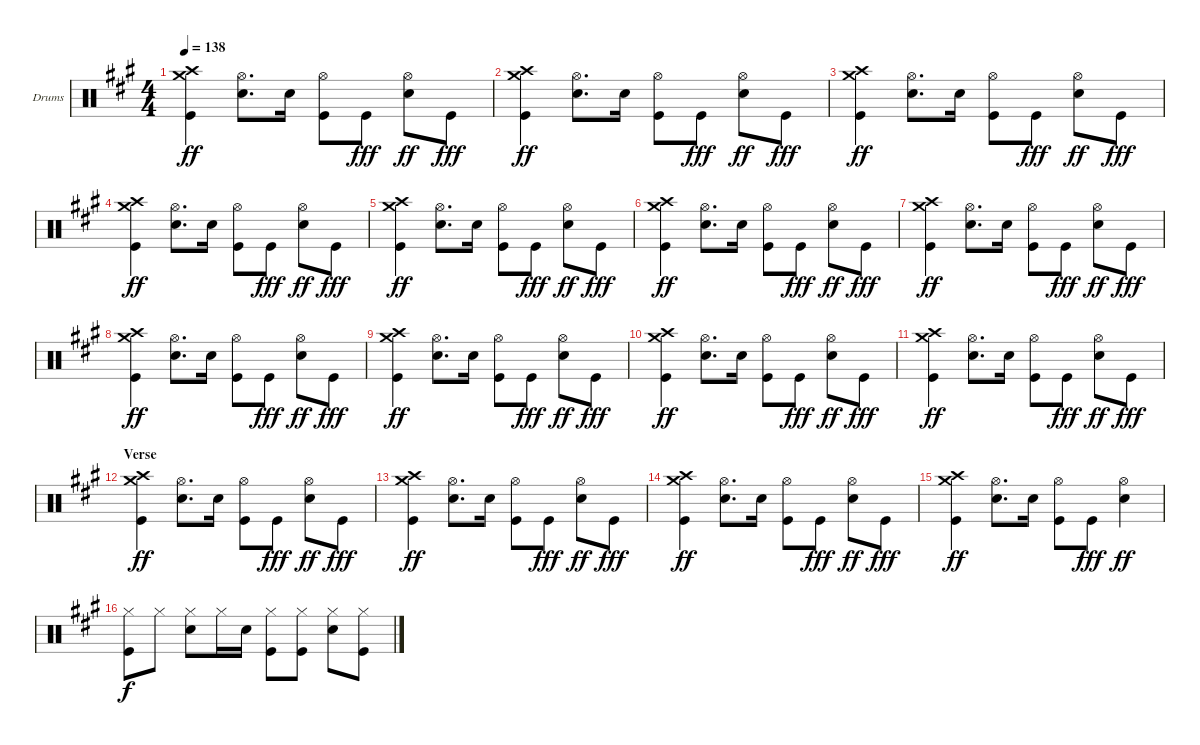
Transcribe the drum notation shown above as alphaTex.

\defaultSystemsLayout 4
\bracketExtendMode groupsimilarinstruments
\firstSystemTrackNameOrientation horizontal
\otherSystemsTrackNameOrientation horizontal
\track ("Drumkit" "Drums") {instrument percussion}
\staff {score}
\articulation defaults
\ts (4 4)
\tempo 138
\clef neutral
\scale
0.941992
\ks a
("Crash high (hit)" "Crash medium (hit)" "Kick (hit)").4{dy ff} ("Hi-Hat (open)" "Snare (hit) 2").8{d} "Snare (hit) 2".16 ("Hi-Hat (open)" "Kick (hit)").8 "Kick (hit)".8{dy fff} ("Hi-Hat (open)" "Snare (hit) 2").8{dy ff} "Kick (hit)".8{dy fff} |
\scale
1.05801 ("Crash high (hit)" "Crash medium (hit)" "Kick (hit)").4{dy ff} ("Hi-Hat (open)" "Snare (hit) 2").8{d} "Snare (hit) 2".16 ("Hi-Hat (open)" "Kick (hit)").8 "Kick (hit)".8{dy fff} ("Hi-Hat (open)" "Snare (hit) 2").8{dy ff} "Kick (hit)".8{dy fff} |
\scale
0.941992 ("Crash high (hit)" "Crash medium (hit)" "Kick (hit)").4{dy ff} ("Hi-Hat (open)" "Snare (hit) 2").8{d} "Snare (hit) 2".16 ("Hi-Hat (open)" "Kick (hit)").8 "Kick (hit)".8{dy fff} ("Hi-Hat (open)" "Snare (hit) 2").8{dy ff} "Kick (hit)".8{dy fff} |
\scale
1.05801 ("Crash high (hit)" "Crash medium (hit)" "Kick (hit)").4{dy ff} ("Hi-Hat (open)" "Snare (hit) 2").8{d} "Snare (hit) 2".16 ("Hi-Hat (open)" "Kick (hit)").8 "Kick (hit)".8{dy fff} ("Hi-Hat (open)" "Snare (hit) 2").8{dy ff} "Kick (hit)".8{dy fff} |
\scale
0.941992 ("Crash high (hit)" "Crash medium (hit)" "Kick (hit)").4{dy ff} ("Hi-Hat (open)" "Snare (hit) 2").8{d} "Snare (hit) 2".16 ("Hi-Hat (open)" "Kick (hit)").8 "Kick (hit)".8{dy fff} ("Hi-Hat (open)" "Snare (hit) 2").8{dy ff} "Kick (hit)".8{dy fff} |
\scale
1.05801 ("Crash high (hit)" "Crash medium (hit)" "Kick (hit)").4{dy ff} ("Hi-Hat (open)" "Snare (hit) 2").8{d} "Snare (hit) 2".16 ("Hi-Hat (open)" "Kick (hit)").8 "Kick (hit)".8{dy fff} ("Hi-Hat (open)" "Snare (hit) 2").8{dy ff} "Kick (hit)".8{dy fff} |
\scale
0.941992 ("Crash high (hit)" "Crash medium (hit)" "Kick (hit)").4{dy ff} ("Hi-Hat (open)" "Snare (hit) 2").8{d} "Snare (hit) 2".16 ("Hi-Hat (open)" "Kick (hit)").8 "Kick (hit)".8{dy fff} ("Hi-Hat (open)" "Snare (hit) 2").8{dy ff} "Kick (hit)".8{dy fff} |
\scale
1.05801 ("Crash high (hit)" "Crash medium (hit)" "Kick (hit)").4{dy ff} ("Hi-Hat (open)" "Snare (hit) 2").8{d} "Snare (hit) 2".16 ("Hi-Hat (open)" "Kick (hit)").8 "Kick (hit)".8{dy fff} ("Hi-Hat (open)" "Snare (hit) 2").8{dy ff} "Kick (hit)".8{dy fff} |
\scale
0.941992 ("Crash high (hit)" "Crash medium (hit)" "Kick (hit)").4{dy ff} ("Hi-Hat (open)" "Snare (hit) 2").8{d} "Snare (hit) 2".16 ("Hi-Hat (open)" "Kick (hit)").8 "Kick (hit)".8{dy fff} ("Hi-Hat (open)" "Snare (hit) 2").8{dy ff} "Kick (hit)".8{dy fff} |
\scale
1.05801 ("Crash high (hit)" "Crash medium (hit)" "Kick (hit)").4{dy ff} ("Hi-Hat (open)" "Snare (hit) 2").8{d} "Snare (hit) 2".16 ("Hi-Hat (open)" "Kick (hit)").8 "Kick (hit)".8{dy fff} ("Hi-Hat (open)" "Snare (hit) 2").8{dy ff} "Kick (hit)".8{dy fff} |
\scale
0.941992 ("Crash high (hit)" "Crash medium (hit)" "Kick (hit)").4{dy ff} ("Hi-Hat (open)" "Snare (hit) 2").8{d} "Snare (hit) 2".16 ("Hi-Hat (open)" "Kick (hit)").8 "Kick (hit)".8{dy fff} ("Hi-Hat (open)" "Snare (hit) 2").8{dy ff} "Kick (hit)".8{dy fff} |
\section ("" "Verse")
\scale
1.05801 ("Crash high (hit)" "Crash medium (hit)" "Kick (hit)").4{dy ff} ("Hi-Hat (open)" "Snare (hit) 2").8{d} "Snare (hit) 2".16 ("Hi-Hat (open)" "Kick (hit)").8 "Kick (hit)".8{dy fff} ("Hi-Hat (open)" "Snare (hit) 2").8{dy ff} "Kick (hit)".8{dy fff} |
\scale
0.941992 ("Crash high (hit)" "Crash medium (hit)" "Kick (hit)").4{dy ff} ("Hi-Hat (open)" "Snare (hit) 2").8{d} "Snare (hit) 2".16 ("Hi-Hat (open)" "Kick (hit)").8 "Kick (hit)".8{dy fff} ("Hi-Hat (open)" "Snare (hit) 2").8{dy ff} "Kick (hit)".8{dy fff} |
\scale
1.05801 ("Crash high (hit)" "Crash medium (hit)" "Kick (hit)").4{dy ff} ("Hi-Hat (open)" "Snare (hit) 2").8{d} "Snare (hit) 2".16 ("Hi-Hat (open)" "Kick (hit)").8 "Kick (hit)".8{dy fff} ("Hi-Hat (open)" "Snare (hit) 2").8{dy ff} "Kick (hit)".8{dy fff} |
\scale
0.941992 ("Crash high (hit)" "Crash medium (hit)" "Kick (hit)").4{dy ff} ("Hi-Hat (open)" "Snare (hit) 2").8{d} "Snare (hit) 2".16 ("Hi-Hat (open)" "Kick (hit)").8 "Kick (hit)".8{dy fff} ("Hi-Hat (open)" "Snare (hit) 2").4{dy ff} |
\scale
1.05801 ("Hi-Hat (closed)" "Kick (hit)").8{dy f} "Hi-Hat (closed)".8 ("Hi-Hat (closed)" "Snare (hit) 2").8 "Hi-Hat (closed)".16 "Snare (hit) 2".16 ("Hi-Hat (closed)" "Kick (hit)").8 ("Hi-Hat (closed)" "Kick (hit)").8 ("Hi-Hat (closed)" "Snare (hit) 2").8 ("Hi-Hat (closed)" "Kick (hit)").8
